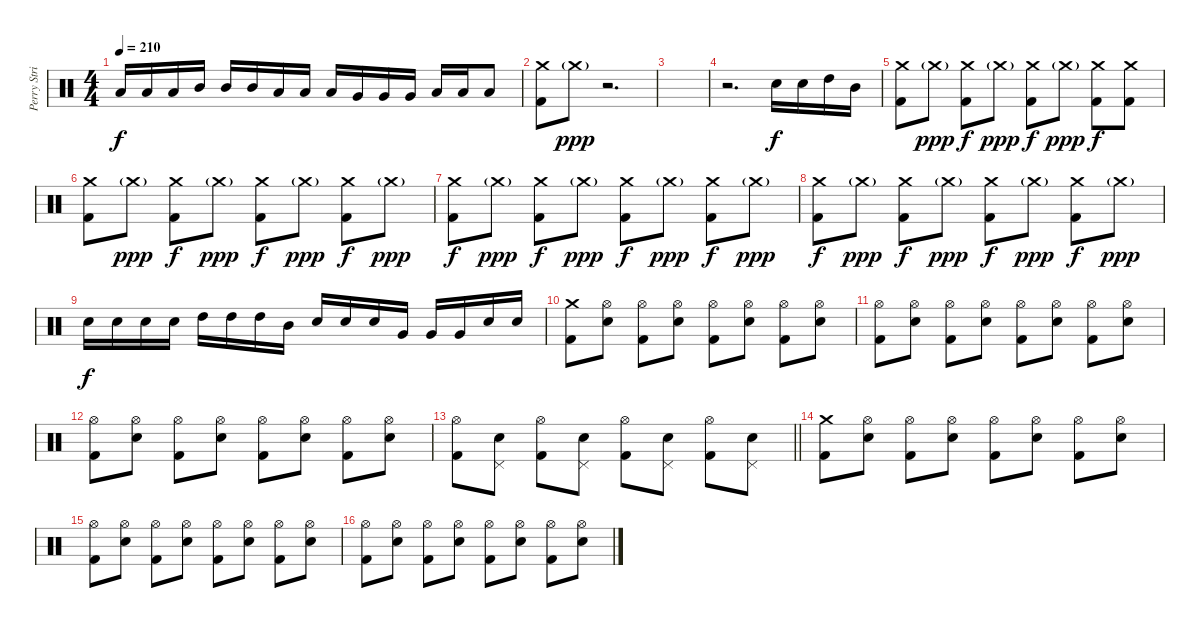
\track ("Perry Strickland" "Perry Stri") {instrument percussion}
\staff {score}
\articulation defaults
\ts (4 4)
\tempo 210
\clef neutral
\ks c "Low Tom (hit)".16{dy f} "Low Tom (hit)".16 "Low Tom (hit)".16 "Mid Tom (hit)".16 "Mid Tom (hit)".16 "Mid Tom (hit)".16 "Low Tom (hit)".16 "Low Tom (hit)".16 "Low Tom (hit)".16 "Very Low Tom (hit)".16 "Very Low Tom (hit)".16 "Very Low Tom (hit)".16 "Low Floor Tom (hit)".16 "Low Floor Tom (hit)".16 "Low Floor Tom (hit)".8
|
("Crash medium (hit)" "Kick (hit) 2").8 "Crash medium (hit)"{g}.8{dy ppp} r.2{d} |
|
r.2{d} "Electric Snare (hit)".16{dy f} "Electric Snare (hit)".16 "High Tom (hit)".16 "Mid Tom (hit)".16 |
("Crash medium (hit)" "Kick (hit) 2").8 "Crash medium (hit)"{g}.8{dy ppp} ("Crash medium (hit)" "Kick (hit) 2").8{dy f} "Crash medium (hit)"{g}.8{dy ppp} ("Crash medium (hit)" "Kick (hit) 2").8{dy f} "Crash medium (hit)"{g}.8{dy ppp} ("Crash medium (hit)" "Kick (hit) 2").8{dy f} ("Crash medium (hit)" "Kick (hit) 2").8 |
("Crash medium (hit)" "Kick (hit) 2").8 "Crash medium (hit)"{g}.8{dy ppp} ("Crash medium (hit)" "Kick (hit) 2").8{dy f} "Crash medium (hit)"{g}.8{dy ppp} ("Crash medium (hit)" "Kick (hit) 2").8{dy f} "Crash medium (hit)"{g}.8{dy ppp} ("Crash medium (hit)" "Kick (hit) 2").8{dy f} "Crash medium (hit)"{g}.8{dy ppp} |
("Crash medium (hit)" "Kick (hit) 2").8{dy f} "Crash medium (hit)"{g}.8{dy ppp} ("Crash medium (hit)" "Kick (hit) 2").8{dy f} "Crash medium (hit)"{g}.8{dy ppp} ("Crash medium (hit)" "Kick (hit) 2").8{dy f} "Crash medium (hit)"{g}.8{dy ppp} ("Crash medium (hit)" "Kick (hit) 2").8{dy f} "Crash medium (hit)"{g}.8{dy ppp} |
("Crash medium (hit)" "Kick (hit) 2").8{dy f} "Crash medium (hit)"{g}.8{dy ppp} ("Crash medium (hit)" "Kick (hit) 2").8{dy f} "Crash medium (hit)"{g}.8{dy ppp} ("Crash medium (hit)" "Kick (hit) 2").8{dy f} "Crash medium (hit)"{g}.8{dy ppp} ("Crash medium (hit)" "Kick (hit) 2").8{dy f} "Crash medium (hit)"{g}.8{dy ppp} |
"Electric Snare (hit)".16{dy f} "Electric Snare (hit)".16 "Electric Snare (hit)".16 "Electric Snare (hit)".16 "High Tom (hit)".16 "High Tom (hit)".16 "High Tom (hit)".16 "Mid Tom (hit)".16 "Electric Snare (hit)".16 "Electric Snare (hit)".16 "Electric Snare (hit)".16 "Very Low Tom (hit)".16 "Very Low Tom (hit)".16 "Very Low Tom (hit)".16 "Electric Snare (hit)".16 "Electric Snare (hit)".16 |
("Crash medium (hit)" "Kick (hit) 2").8 ("Hi-Hat (open)" "Electric Snare (hit)").8 ("Hi-Hat (open)" "Kick (hit) 2").8 ("Hi-Hat (open)" "Electric Snare (hit)").8 ("Hi-Hat (open)" "Kick (hit) 2").8 ("Hi-Hat (open)" "Electric Snare (hit)").8 ("Hi-Hat (open)" "Kick (hit) 2").8 ("Hi-Hat (open)" "Electric Snare (hit)").8 |
("Hi-Hat (open)" "Kick (hit) 2").8 ("Hi-Hat (open)" "Electric Snare (hit)").8 ("Hi-Hat (open)" "Kick (hit) 2").8 ("Hi-Hat (open)" "Electric Snare (hit)").8 ("Hi-Hat (open)" "Kick (hit) 2").8 ("Hi-Hat (open)" "Electric Snare (hit)").8 ("Hi-Hat (open)" "Kick (hit) 2").8 ("Hi-Hat (open)" "Electric Snare (hit)").8 |
("Hi-Hat (open)" "Kick (hit) 2").8 ("Hi-Hat (open)" "Electric Snare (hit)").8 ("Hi-Hat (open)" "Kick (hit) 2").8 ("Hi-Hat (open)" "Electric Snare (hit)").8 ("Hi-Hat (open)" "Kick (hit) 2").8 ("Hi-Hat (open)" "Electric Snare (hit)").8 ("Hi-Hat (open)" "Kick (hit) 2").8 ("Hi-Hat (open)" "Electric Snare (hit)").8 |
\barLineRight lightlight
("Hi-Hat (open)" "Kick (hit) 2").8 ("Pedal Hi-Hat (hit)" "Electric Snare (hit)").8 ("Hi-Hat (open)" "Kick (hit) 2").8 ("Pedal Hi-Hat (hit)" "Electric Snare (hit)").8 ("Hi-Hat (open)" "Kick (hit) 2").8 ("Pedal Hi-Hat (hit)" "Electric Snare (hit)").8 ("Hi-Hat (open)" "Kick (hit) 2").8 ("Pedal Hi-Hat (hit)" "Electric Snare (hit)").8 |
("Crash medium (hit)" "Kick (hit) 2").8 ("Hi-Hat (open)" "Electric Snare (hit)").8 ("Hi-Hat (open)" "Kick (hit) 2").8 ("Hi-Hat (open)" "Electric Snare (hit)").8 ("Hi-Hat (open)" "Kick (hit) 2").8 ("Hi-Hat (open)" "Electric Snare (hit)").8 ("Hi-Hat (open)" "Kick (hit) 2").8 ("Hi-Hat (open)" "Electric Snare (hit)").8 |
("Hi-Hat (open)" "Kick (hit) 2").8 ("Hi-Hat (open)" "Electric Snare (hit)").8 ("Hi-Hat (open)" "Kick (hit) 2").8 ("Hi-Hat (open)" "Electric Snare (hit)").8 ("Hi-Hat (open)" "Kick (hit) 2").8 ("Hi-Hat (open)" "Electric Snare (hit)").8 ("Hi-Hat (open)" "Kick (hit) 2").8 ("Hi-Hat (open)" "Electric Snare (hit)").8 |
("Hi-Hat (open)" "Kick (hit) 2").8 ("Hi-Hat (open)" "Electric Snare (hit)").8 ("Hi-Hat (open)" "Kick (hit) 2").8 ("Hi-Hat (open)" "Electric Snare (hit)").8 ("Hi-Hat (open)" "Kick (hit) 2").8 ("Hi-Hat (open)" "Electric Snare (hit)").8 ("Hi-Hat (open)" "Kick (hit) 2").8 ("Hi-Hat (open)" "Electric Snare (hit)").8
